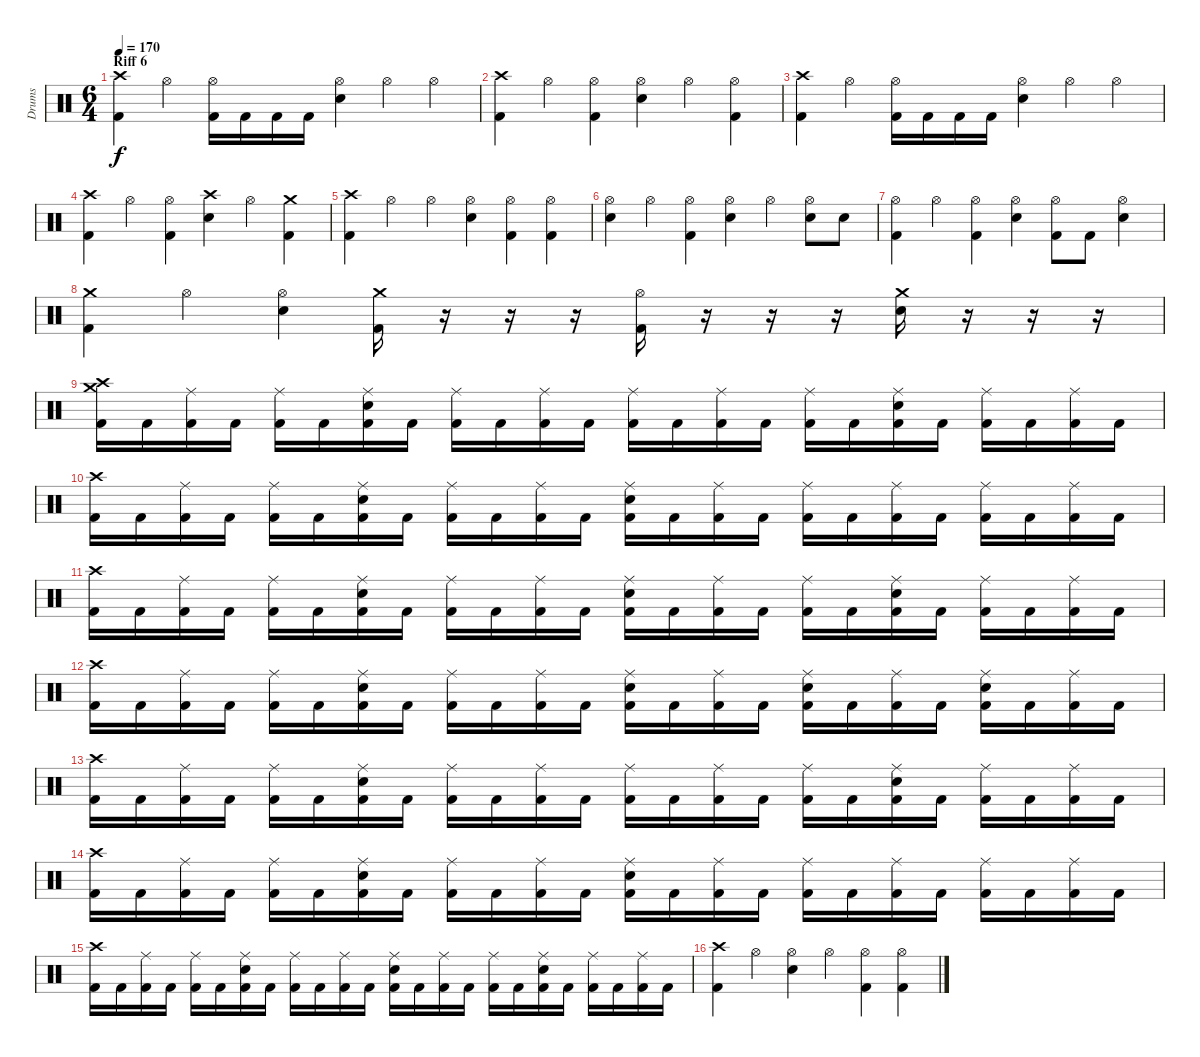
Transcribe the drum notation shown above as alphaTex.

\track ("Drums" "Drums") {instrument percussion}
\staff {score}
\articulation defaults
\ts (6 4)
\section ("" "Riff 6")
\tempo 170
\clef neutral
\ks c
("Crash high (hit)" "Kick (hit) 2").4{dy f} "Hi-Hat (open)".4 ("Hi-Hat (open)" "Kick (hit) 2").16 "Kick (hit) 2".16 "Kick (hit) 2".16 "Kick (hit) 2".16 ("Hi-Hat (open)" "Electric Snare (hit)").4 "Hi-Hat (open)".4 "Hi-Hat (open)".4 |
("Crash high (hit)" "Kick (hit) 2").4 "Hi-Hat (open)".4 ("Hi-Hat (open)" "Kick (hit) 2").4 ("Hi-Hat (open)" "Electric Snare (hit)").4 "Hi-Hat (open)".4 ("Hi-Hat (open)" "Kick (hit) 2").4 |
("Crash high (hit)" "Kick (hit) 2").4 "Hi-Hat (open)".4 ("Hi-Hat (open)" "Kick (hit) 2").16 "Kick (hit) 2".16 "Kick (hit) 2".16 "Kick (hit) 2".16 ("Hi-Hat (open)" "Electric Snare (hit)").4 "Hi-Hat (open)".4 "Hi-Hat (open)".4 |
("Crash high (hit)" "Kick (hit) 2").4 "Hi-Hat (open)".4 ("Hi-Hat (open)" "Kick (hit) 2").4 ("Crash high (hit)" "Electric Snare (hit)").4 "Hi-Hat (open)".4 ("Crash medium (hit)" "Kick (hit) 2").4 |
("Crash high (hit)" "Kick (hit) 2").4 "Hi-Hat (open)".4 "Hi-Hat (open)".4 ("Hi-Hat (open)" "Electric Snare (hit)").4 ("Hi-Hat (open)" "Kick (hit) 2").4 ("Hi-Hat (open)" "Kick (hit) 2").4 |
("Hi-Hat (open)" "Electric Snare (hit)").4 "Hi-Hat (open)".4 ("Hi-Hat (open)" "Kick (hit) 2").4 ("Hi-Hat (open)" "Electric Snare (hit)").4 "Hi-Hat (open)".4 ("Hi-Hat (open)" "Electric Snare (hit)").8 "Electric Snare (hit)".8 |
("Hi-Hat (open)" "Kick (hit) 2").4 "Hi-Hat (open)".4 ("Hi-Hat (open)" "Kick (hit) 2").4 ("Hi-Hat (open)" "Electric Snare (hit)").4 ("Hi-Hat (open)" "Kick (hit) 2").8 "Kick (hit) 2".8 ("Hi-Hat (open)" "Electric Snare (hit)").4 |
("Crash medium (hit)" "Kick (hit) 2").4 "Hi-Hat (open)".4 ("Hi-Hat (open)" "Electric Snare (hit)").4 ("Crash medium (hit)" "Kick (hit) 2").16 r.16 r.16 r.16 ("Hi-Hat (open)" "Kick (hit) 2").16 r.16 r.16 r.16 ("Crash medium (hit)" "Electric Snare (hit)").16 r.16 r.16 r.16 |
("Crash high (hit)" "Crash medium (hit)" "Kick (hit) 2").16 "Kick (hit) 2".16 ("Ride (middle)" "Kick (hit) 2").16 "Kick (hit) 2".16 ("Ride (middle)" "Kick (hit) 2").16 "Kick (hit) 2".16 ("Ride (middle)" "Electric Snare (hit)" "Kick (hit) 2").16 "Kick (hit) 2".16 ("Ride (middle)" "Kick (hit) 2").16 "Kick (hit) 2".16 ("Ride (middle)" "Kick (hit) 2").16 "Kick (hit) 2".16 ("Ride (middle)" "Kick (hit) 2").16 "Kick (hit) 2".16 ("Ride (middle)" "Kick (hit) 2").16 "Kick (hit) 2".16 ("Ride (middle)" "Kick (hit) 2").16 "Kick (hit) 2".16 ("Ride (middle)" "Electric Snare (hit)" "Kick (hit) 2").16 "Kick (hit) 2".16 ("Ride (middle)" "Kick (hit) 2").16 "Kick (hit) 2".16 ("Ride (middle)" "Kick (hit) 2").16 "Kick (hit) 2".16 |
("Crash high (hit)" "Kick (hit) 2").16 "Kick (hit) 2".16 ("Ride (middle)" "Kick (hit) 2").16 "Kick (hit) 2".16 ("Ride (middle)" "Kick (hit) 2").16 "Kick (hit) 2".16 ("Ride (middle)" "Electric Snare (hit)" "Kick (hit) 2").16 "Kick (hit) 2".16 ("Ride (middle)" "Kick (hit) 2").16 "Kick (hit) 2".16 ("Ride (middle)" "Kick (hit) 2").16 "Kick (hit) 2".16 ("Ride (middle)" "Electric Snare (hit)" "Kick (hit) 2").16 "Kick (hit) 2".16 ("Ride (middle)" "Kick (hit) 2").16 "Kick (hit) 2".16 ("Ride (middle)" "Kick (hit) 2").16 "Kick (hit) 2".16 ("Ride (middle)" "Kick (hit) 2").16 "Kick (hit) 2".16 ("Ride (middle)" "Kick (hit) 2").16 "Kick (hit) 2".16 ("Ride (middle)" "Kick (hit) 2").16 "Kick (hit) 2".16 |
("Crash high (hit)" "Kick (hit) 2").16 "Kick (hit) 2".16 ("Ride (middle)" "Kick (hit) 2").16 "Kick (hit) 2".16 ("Ride (middle)" "Kick (hit) 2").16 "Kick (hit) 2".16 ("Ride (middle)" "Electric Snare (hit)" "Kick (hit) 2").16 "Kick (hit) 2".16 ("Ride (middle)" "Kick (hit) 2").16 "Kick (hit) 2".16 ("Ride (middle)" "Kick (hit) 2").16 "Kick (hit) 2".16 ("Ride (middle)" "Electric Snare (hit)" "Kick (hit) 2").16 "Kick (hit) 2".16 ("Ride (middle)" "Kick (hit) 2").16 "Kick (hit) 2".16 ("Ride (middle)" "Kick (hit) 2").16 "Kick (hit) 2".16 ("Ride (middle)" "Electric Snare (hit)" "Kick (hit) 2").16 "Kick (hit) 2".16 ("Ride (middle)" "Kick (hit) 2").16 "Kick (hit) 2".16 ("Ride (middle)" "Kick (hit) 2").16 "Kick (hit) 2".16 |
("Crash high (hit)" "Kick (hit) 2").16 "Kick (hit) 2".16 ("Ride (middle)" "Kick (hit) 2").16 "Kick (hit) 2".16 ("Ride (middle)" "Kick (hit) 2").16 "Kick (hit) 2".16 ("Ride (middle)" "Electric Snare (hit)" "Kick (hit) 2").16 "Kick (hit) 2".16 ("Ride (middle)" "Kick (hit) 2").16 "Kick (hit) 2".16 ("Ride (middle)" "Kick (hit) 2").16 "Kick (hit) 2".16 ("Ride (middle)" "Electric Snare (hit)" "Kick (hit) 2").16 "Kick (hit) 2".16 ("Ride (middle)" "Kick (hit) 2").16 "Kick (hit) 2".16 ("Ride (middle)" "Electric Snare (hit)" "Kick (hit) 2").16 "Kick (hit) 2".16 ("Ride (middle)" "Kick (hit) 2").16 "Kick (hit) 2".16 ("Ride (middle)" "Electric Snare (hit)" "Kick (hit) 2").16 "Kick (hit) 2".16 ("Ride (middle)" "Kick (hit) 2").16 "Kick (hit) 2".16 |
("Crash high (hit)" "Kick (hit) 2").16 "Kick (hit) 2".16 ("Ride (middle)" "Kick (hit) 2").16 "Kick (hit) 2".16 ("Ride (middle)" "Kick (hit) 2").16 "Kick (hit) 2".16 ("Ride (middle)" "Electric Snare (hit)" "Kick (hit) 2").16 "Kick (hit) 2".16 ("Ride (middle)" "Kick (hit) 2").16 "Kick (hit) 2".16 ("Ride (middle)" "Kick (hit) 2").16 "Kick (hit) 2".16 ("Ride (middle)" "Kick (hit) 2").16 "Kick (hit) 2".16 ("Ride (middle)" "Kick (hit) 2").16 "Kick (hit) 2".16 ("Ride (middle)" "Kick (hit) 2").16 "Kick (hit) 2".16 ("Ride (middle)" "Electric Snare (hit)" "Kick (hit) 2").16 "Kick (hit) 2".16 ("Ride (middle)" "Kick (hit) 2").16 "Kick (hit) 2".16 ("Ride (middle)" "Kick (hit) 2").16 "Kick (hit) 2".16 |
("Crash high (hit)" "Kick (hit) 2").16 "Kick (hit) 2".16 ("Ride (middle)" "Kick (hit) 2").16 "Kick (hit) 2".16 ("Ride (middle)" "Kick (hit) 2").16 "Kick (hit) 2".16 ("Ride (middle)" "Electric Snare (hit)" "Kick (hit) 2").16 "Kick (hit) 2".16 ("Ride (middle)" "Kick (hit) 2").16 "Kick (hit) 2".16 ("Ride (middle)" "Kick (hit) 2").16 "Kick (hit) 2".16 ("Ride (middle)" "Electric Snare (hit)" "Kick (hit) 2").16 "Kick (hit) 2".16 ("Ride (middle)" "Kick (hit) 2").16 "Kick (hit) 2".16 ("Ride (middle)" "Kick (hit) 2").16 "Kick (hit) 2".16 ("Ride (middle)" "Kick (hit) 2").16 "Kick (hit) 2".16 ("Ride (middle)" "Kick (hit) 2").16 "Kick (hit) 2".16 ("Ride (middle)" "Kick (hit) 2").16 "Kick (hit) 2".16 |
("Crash high (hit)" "Kick (hit) 2").16 "Kick (hit) 2".16 ("Ride (middle)" "Kick (hit) 2").16 "Kick (hit) 2".16 ("Ride (middle)" "Kick (hit) 2").16 "Kick (hit) 2".16 ("Ride (middle)" "Electric Snare (hit)" "Kick (hit) 2").16 "Kick (hit) 2".16 ("Ride (middle)" "Kick (hit) 2").16 "Kick (hit) 2".16 ("Ride (middle)" "Kick (hit) 2").16 "Kick (hit) 2".16 ("Ride (middle)" "Electric Snare (hit)" "Kick (hit) 2").16 "Kick (hit) 2".16 ("Ride (middle)" "Kick (hit) 2").16 "Kick (hit) 2".16 ("Ride (middle)" "Kick (hit) 2").16 "Kick (hit) 2".16 ("Ride (middle)" "Electric Snare (hit)" "Kick (hit) 2").16 "Kick (hit) 2".16 ("Ride (middle)" "Kick (hit) 2").16 "Kick (hit) 2".16 ("Ride (middle)" "Kick (hit) 2").16 "Kick (hit) 2".16 |
("Crash high (hit)" "Kick (hit) 2").4 "Hi-Hat (open)".4 ("Hi-Hat (open)" "Electric Snare (hit)").4 "Hi-Hat (open)".4 ("Hi-Hat (open)" "Kick (hit) 2").4 ("Hi-Hat (open)" "Kick (hit) 2").4
